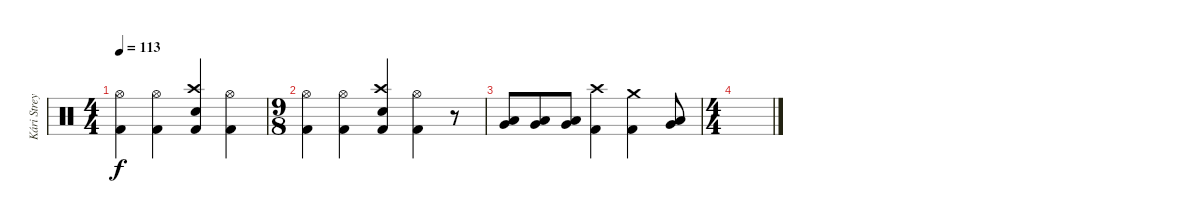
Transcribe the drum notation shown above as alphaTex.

\track ("Kári Streymoy" "Kári Strey") {instrument percussion}
\staff {score}
\articulation defaults
\ts (4 4)
\tempo 113
\clef neutral
\ks c
("Hi-Hat (open)" "Kick (hit) 2").4{dy f} ("Hi-Hat (open)" "Kick (hit) 2").4 ("Crash high (hit)" "Snare (hit) 2" "Kick (hit) 2").4 ("Hi-Hat (open)" "Kick (hit) 2").4 |
\ts (9 8)
("Hi-Hat (open)" "Kick (hit) 2").4 ("Hi-Hat (open)" "Kick (hit) 2").4 ("Crash high (hit)" "Snare (hit) 2" "Kick (hit) 2").4 ("Hi-Hat (open)" "Kick (hit) 2").4 r.8 |
("Low Tom (hit)" "Very Low Tom (hit)").8 ("Low Tom (hit)" "Very Low Tom (hit)").8 ("Low Tom (hit)" "Very Low Tom (hit)").8 ("Crash high (hit)" "Kick (hit) 2").4 ("Crash medium (hit)" "Kick (hit) 2").4 ("Low Tom (hit)" "Very Low Tom (hit)").8 |
\ts (4 4)
